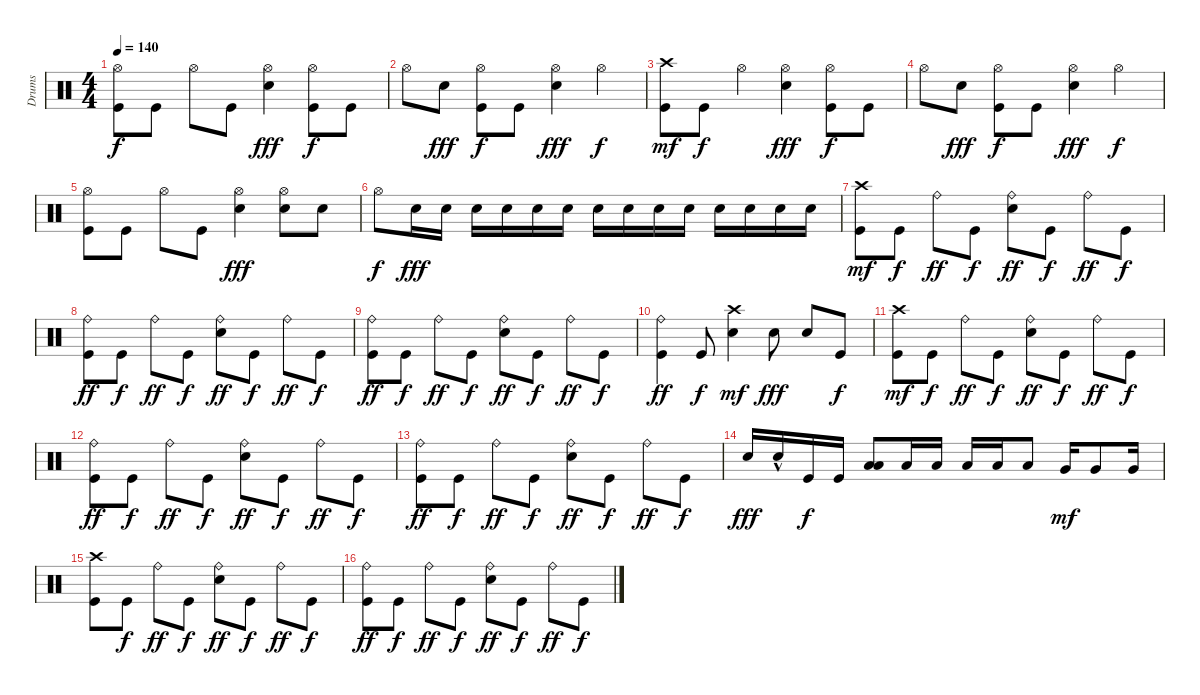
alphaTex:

\track ("Drums" "Drums") {instrument percussion}
\staff {score}
\articulation defaults
\ts (4 4)
\tempo 140
\clef neutral
\ks c
("Kick (hit)" "Hi-Hat (open)").8{dy f} "Kick (hit)".8 "Hi-Hat (open)".8 "Kick (hit)".8 ("Electric Snare (hit)" "Hi-Hat (open)").4{dy fff} ("Kick (hit)" "Hi-Hat (open)").8{dy f} "Kick (hit)".8 |
"Hi-Hat (open)".8 "Electric Snare (hit)".8{dy fff} ("Kick (hit)" "Hi-Hat (open)").8{dy f} "Kick (hit)".8 ("Electric Snare (hit)" "Hi-Hat (open)").4{dy fff} "Hi-Hat (open)".4{dy f} |
("Kick (hit)" "Crash high (hit)").8{dy mf} "Kick (hit)".8{dy f} "Hi-Hat (open)".4 ("Electric Snare (hit)" "Hi-Hat (open)").4{dy fff} ("Kick (hit)" "Hi-Hat (open)").8{dy f} "Kick (hit)".8 |
"Hi-Hat (open)".8 "Electric Snare (hit)".8{dy fff} ("Kick (hit)" "Hi-Hat (open)").8{dy f} "Kick (hit)".8 ("Electric Snare (hit)" "Hi-Hat (open)").4{dy fff} "Hi-Hat (open)".4{dy f} |
("Kick (hit)" "Hi-Hat (open)").8 "Kick (hit)".8 "Hi-Hat (open)".8 "Kick (hit)".8 ("Electric Snare (hit)" "Hi-Hat (open)").4{dy fff} ("Electric Snare (hit)" "Hi-Hat (open)").8 "Electric Snare (hit)".8 |
"Hi-Hat (open)".8{dy f} "Electric Snare (hit)".16{dy fff} "Electric Snare (hit)".16 "Electric Snare (hit)".16 "Electric Snare (hit)".16 "Electric Snare (hit)".16 "Electric Snare (hit)".16 "Electric Snare (hit)".16 "Electric Snare (hit)".16 "Electric Snare (hit)".16 "Electric Snare (hit)".16 "Electric Snare (hit)".16 "Electric Snare (hit)".16 "Electric Snare (hit)".16 "Electric Snare (hit)".16 |
("Kick (hit)" "Crash high (hit)").8{dy mf} "Kick (hit)".8{dy f} "Ride (bell)".8{dy ff} "Kick (hit)".8{dy f} ("Electric Snare (hit)" "Ride (bell)").8{dy ff} "Kick (hit)".8{dy f} "Ride (bell)".8{dy ff} "Kick (hit)".8{dy f} |
("Kick (hit)" "Ride (bell)").8{dy ff} "Kick (hit)".8{dy f} "Ride (bell)".8{dy ff} "Kick (hit)".8{dy f} ("Electric Snare (hit)" "Ride (bell)").8{dy ff} "Kick (hit)".8{dy f} "Ride (bell)".8{dy ff} "Kick (hit)".8{dy f} |
("Kick (hit)" "Ride (bell)").8{dy ff} "Kick (hit)".8{dy f} "Ride (bell)".8{dy ff} "Kick (hit)".8{dy f} ("Electric Snare (hit)" "Ride (bell)").8{dy ff} "Kick (hit)".8{dy f} "Ride (bell)".8{dy ff} "Kick (hit)".8{dy f} |
("Ride (bell)" "Kick (hit)").4{dy ff} "Kick (hit)".8{dy f} ("Electric Snare (hit)" "Crash high (hit)").4{dy mf} "Electric Snare (hit)".8{dy fff} "Electric Snare (hit)".8 "Kick (hit)".8{dy f} |
("Kick (hit)" "Crash high (hit)").8{dy mf} "Kick (hit)".8{dy f} "Ride (bell)".8{dy ff} "Kick (hit)".8{dy f} ("Electric Snare (hit)" "Ride (bell)").8{dy ff} "Kick (hit)".8{dy f} "Ride (bell)".8{dy ff} "Kick (hit)".8{dy f} |
("Kick (hit)" "Ride (bell)").8{dy ff} "Kick (hit)".8{dy f} "Ride (bell)".8{dy ff} "Kick (hit)".8{dy f} ("Electric Snare (hit)" "Ride (bell)").8{dy ff} "Kick (hit)".8{dy f} "Ride (bell)".8{dy ff} "Kick (hit)".8{dy f} |
("Kick (hit)" "Ride (bell)").8{dy ff} "Kick (hit)".8{dy f} "Ride (bell)".8{dy ff} "Kick (hit)".8{dy f} ("Electric Snare (hit)" "Ride (bell)").8{dy ff} "Kick (hit)".8{dy f} "Ride (bell)".8{dy ff} "Kick (hit)".8{dy f} |
"Electric Snare (hit)".16{dy fff} "Electric Snare (hit)"{hac}.16 "Kick (hit)".16{dy f} "Kick (hit)".16 ("Low Tom (hit)" "Low Tom (hit)").8 "Low Tom (hit)".16 "Low Tom (hit)".16 "Low Tom (hit)".16 "Low Tom (hit)".16 "Low Tom (hit)".8 "Very Low Tom (hit)".16{dy mf} "Very Low Tom (hit)".8 "Very Low Tom (hit)".16 |
("Kick (hit)" "Crash high (hit)").8 "Kick (hit)".8{dy f} "Ride (bell)".8{dy ff} "Kick (hit)".8{dy f} ("Electric Snare (hit)" "Ride (bell)").8{dy ff} "Kick (hit)".8{dy f} "Ride (bell)".8{dy ff} "Kick (hit)".8{dy f} |
("Kick (hit)" "Ride (bell)").8{dy ff} "Kick (hit)".8{dy f} "Ride (bell)".8{dy ff} "Kick (hit)".8{dy f} ("Electric Snare (hit)" "Ride (bell)").8{dy ff} "Kick (hit)".8{dy f} "Ride (bell)".8{dy ff} "Kick (hit)".8{dy f}
